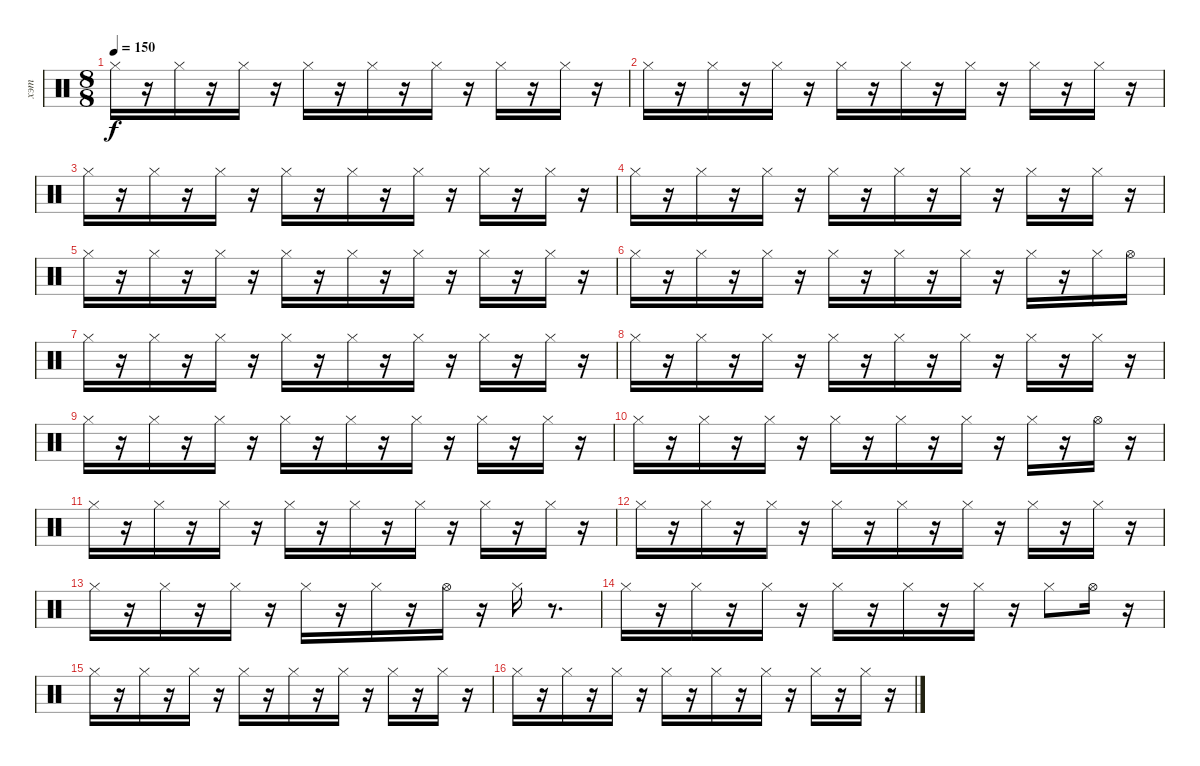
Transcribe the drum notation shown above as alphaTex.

\track ("хэт" "хэт") {instrument percussion}
\staff {score}
\articulation defaults
\ts (8 8)
\tempo 150
\clef neutral
\ks c "Hi-Hat (closed)".16{dy f}
r.16 "Hi-Hat (closed)".16 r.16 "Hi-Hat (closed)".16 r.16 "Hi-Hat (closed)".16 r.16 "Hi-Hat (closed)".16 r.16 "Hi-Hat (closed)".16 r.16 "Hi-Hat (closed)".16 r.16 "Hi-Hat (closed)".16 r.16 |
"Hi-Hat (closed)".16 r.16 "Hi-Hat (closed)".16 r.16 "Hi-Hat (closed)".16 r.16 "Hi-Hat (closed)".16 r.16 "Hi-Hat (closed)".16 r.16 "Hi-Hat (closed)".16 r.16 "Hi-Hat (closed)".16 r.16 "Hi-Hat (closed)".16 r.16 |
"Hi-Hat (closed)".16 r.16 "Hi-Hat (closed)".16 r.16 "Hi-Hat (closed)".16 r.16 "Hi-Hat (closed)".16 r.16 "Hi-Hat (closed)".16 r.16 "Hi-Hat (closed)".16 r.16 "Hi-Hat (closed)".16 r.16 "Hi-Hat (closed)".16 r.16 |
"Hi-Hat (closed)".16 r.16 "Hi-Hat (closed)".16 r.16 "Hi-Hat (closed)".16 r.16 "Hi-Hat (closed)".16 r.16 "Hi-Hat (closed)".16 r.16 "Hi-Hat (closed)".16 r.16 "Hi-Hat (closed)".16 r.16 "Hi-Hat (closed)".16 r.16 |
"Hi-Hat (closed)".16 r.16 "Hi-Hat (closed)".16 r.16 "Hi-Hat (closed)".16 r.16 "Hi-Hat (closed)".16 r.16 "Hi-Hat (closed)".16 r.16 "Hi-Hat (closed)".16 r.16 "Hi-Hat (closed)".16 r.16 "Hi-Hat (closed)".16 r.16 |
"Hi-Hat (closed)".16 r.16 "Hi-Hat (closed)".16 r.16 "Hi-Hat (closed)".16 r.16 "Hi-Hat (closed)".16 r.16 "Hi-Hat (closed)".16 r.16 "Hi-Hat (closed)".16 r.16 "Hi-Hat (closed)".16 r.16 "Hi-Hat (closed)".16 "Hi-Hat (open)".16 |
"Hi-Hat (closed)".16 r.16 "Hi-Hat (closed)".16 r.16 "Hi-Hat (closed)".16 r.16 "Hi-Hat (closed)".16 r.16 "Hi-Hat (closed)".16 r.16 "Hi-Hat (closed)".16 r.16 "Hi-Hat (closed)".16 r.16 "Hi-Hat (closed)".16 r.16 |
"Hi-Hat (closed)".16 r.16 "Hi-Hat (closed)".16 r.16 "Hi-Hat (closed)".16 r.16 "Hi-Hat (closed)".16 r.16 "Hi-Hat (closed)".16 r.16 "Hi-Hat (closed)".16 r.16 "Hi-Hat (closed)".16 r.16 "Hi-Hat (closed)".16 r.16 |
"Hi-Hat (closed)".16 r.16 "Hi-Hat (closed)".16 r.16 "Hi-Hat (closed)".16 r.16 "Hi-Hat (closed)".16 r.16 "Hi-Hat (closed)".16 r.16 "Hi-Hat (closed)".16 r.16 "Hi-Hat (closed)".16 r.16 "Hi-Hat (closed)".16 r.16 |
"Hi-Hat (closed)".16 r.16 "Hi-Hat (closed)".16 r.16 "Hi-Hat (closed)".16 r.16 "Hi-Hat (closed)".16 r.16 "Hi-Hat (closed)".16 r.16 "Hi-Hat (closed)".16 r.16 "Hi-Hat (closed)".16 r.16 "Hi-Hat (open)".16 r.16 |
"Hi-Hat (closed)".16 r.16 "Hi-Hat (closed)".16 r.16 "Hi-Hat (closed)".16 r.16 "Hi-Hat (closed)".16 r.16 "Hi-Hat (closed)".16 r.16 "Hi-Hat (closed)".16 r.16 "Hi-Hat (closed)".16 r.16 "Hi-Hat (closed)".16 r.16 |
"Hi-Hat (closed)".16 r.16 "Hi-Hat (closed)".16 r.16 "Hi-Hat (closed)".16 r.16 "Hi-Hat (closed)".16 r.16 "Hi-Hat (closed)".16 r.16 "Hi-Hat (closed)".16 r.16 "Hi-Hat (closed)".16 r.16 "Hi-Hat (closed)".16 r.16 |
"Hi-Hat (closed)".16 r.16 "Hi-Hat (closed)".16 r.16 "Hi-Hat (closed)".16 r.16 "Hi-Hat (closed)".16 r.16 "Hi-Hat (closed)".16 r.16 "Hi-Hat (open)".16 r.16 "Hi-Hat (closed)".16 r.8{d} |
"Hi-Hat (closed)".16 r.16 "Hi-Hat (closed)".16 r.16 "Hi-Hat (closed)".16 r.16 "Hi-Hat (closed)".16 r.16 "Hi-Hat (closed)".16 r.16 "Hi-Hat (closed)".16 r.16 "Hi-Hat (closed)".8 "Hi-Hat (open)".16 r.16 |
"Hi-Hat (closed)".16 r.16 "Hi-Hat (closed)".16 r.16 "Hi-Hat (closed)".16 r.16 "Hi-Hat (closed)".16 r.16 "Hi-Hat (closed)".16 r.16 "Hi-Hat (closed)".16 r.16 "Hi-Hat (closed)".16 r.16 "Hi-Hat (closed)".16 r.16 |
"Hi-Hat (closed)".16 r.16 "Hi-Hat (closed)".16 r.16 "Hi-Hat (closed)".16 r.16 "Hi-Hat (closed)".16 r.16 "Hi-Hat (closed)".16 r.16 "Hi-Hat (closed)".16 r.16 "Hi-Hat (closed)".16 r.16 "Hi-Hat (closed)".16 r.16
